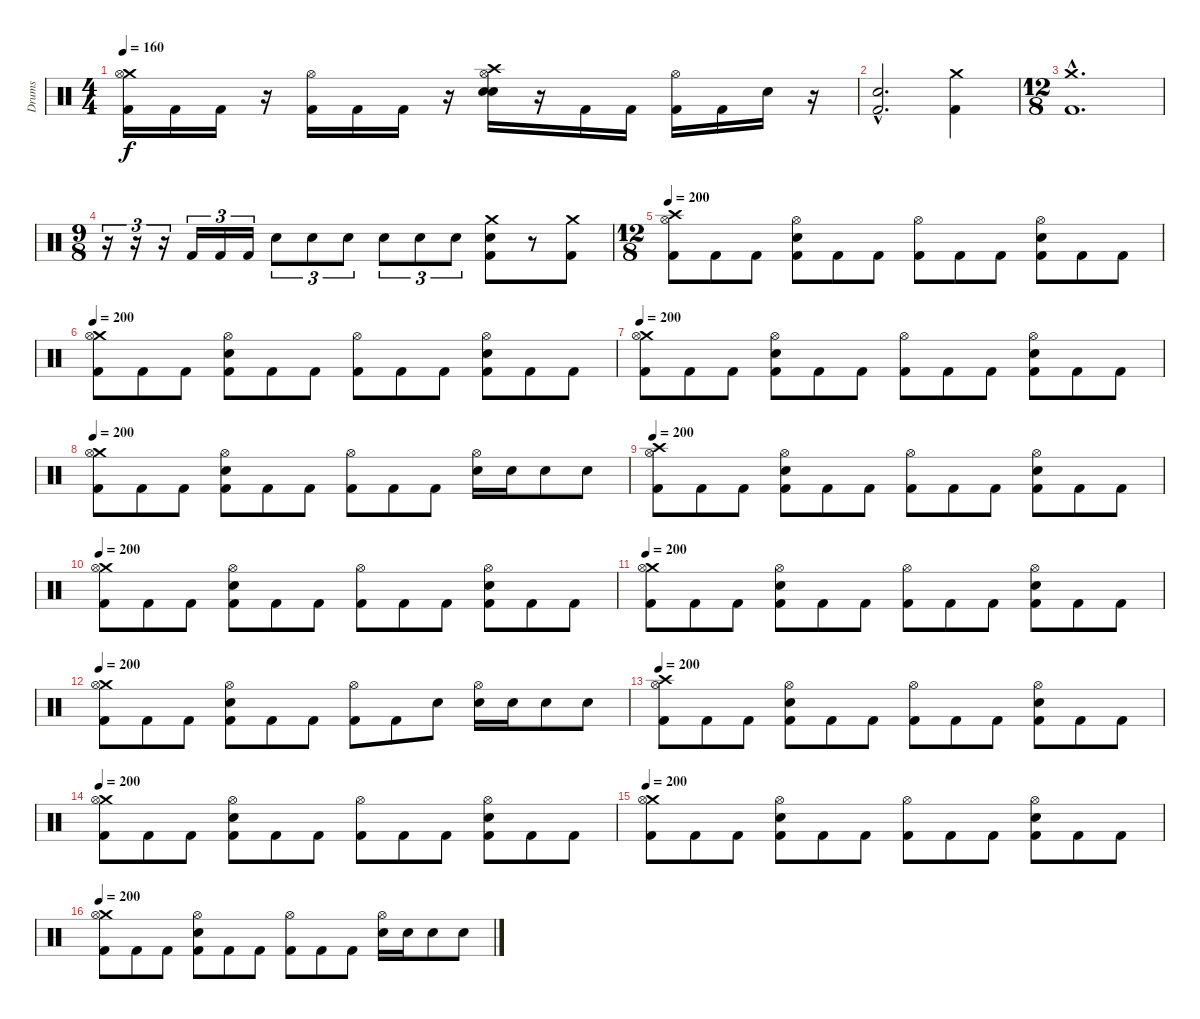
\track ("Drums" "Drums") {instrument percussion}
\staff {score}
\articulation defaults
\ts (4 4)
\tempo 160
\clef neutral
\ks c
("Crash medium (hit)" "Hi-Hat (open)" "Kick (hit) 2").16{dy f} "Kick (hit) 2".16 "Kick (hit) 2".16 r.16 ("Hi-Hat (open)" "Kick (hit) 2").16 "Kick (hit) 2".16 "Kick (hit) 2".16 r.16 ("Crash high (hit)" "Hi-Hat (open)" "Snare (hit) 2" "Electric Snare (hit)").16 r.16 "Kick (hit) 2".16 "Kick (hit) 2".16 ("Hi-Hat (open)" "Kick (hit) 2").16 "Kick (hit) 2".16 "Electric Snare (hit)".16 r.16 |
("Electric Snare (hit)"{hac} "Kick (hit) 2"{hac}).2{d} ("Crash medium (hit)" "Kick (hit) 2").4 |
\ts (12 8)
("Crash medium (hit)"{hac} "Kick (hit) 2"{hac}).1{d} |
\ts (9 8)
r.16{tu (3 2)} r.16{tu (3 2)} r.16{tu (3 2)} "Kick (hit) 2".16{tu (3 2)} "Kick (hit) 2".16{tu (3 2)} "Kick (hit) 2".16{tu (3 2)} "Electric Snare (hit)".8{tu (3 2)} "Electric Snare (hit)".8{tu (3 2)} "Electric Snare (hit)".8{tu (3 2)} "Electric Snare (hit)".8{tu (3 2)} "Electric Snare (hit)".8{tu (3 2)} "Electric Snare (hit)".8{tu (3 2)} ("Crash medium (hit)" "Electric Snare (hit)" "Kick (hit) 2").8 r.8 ("Crash medium (hit)" "Kick (hit) 2").8 |
\ts (12 8)
\tempo 200
("Crash high (hit)" "Hi-Hat (open)" "Kick (hit) 2").8 "Kick (hit) 2".8 "Kick (hit) 2".8 ("Hi-Hat (open)" "Electric Snare (hit)" "Kick (hit) 2").8 "Kick (hit) 2".8 "Kick (hit) 2".8 ("Hi-Hat (open)" "Kick (hit) 2").8 "Kick (hit) 2".8 "Kick (hit) 2".8 ("Hi-Hat (open)" "Electric Snare (hit)" "Kick (hit) 2").8 "Kick (hit) 2".8 "Kick (hit) 2".8 |
\tempo 200
("Crash medium (hit)" "Hi-Hat (open)" "Kick (hit) 2").8 "Kick (hit) 2".8 "Kick (hit) 2".8 ("Hi-Hat (open)" "Electric Snare (hit)" "Kick (hit) 2").8 "Kick (hit) 2".8 "Kick (hit) 2".8 ("Hi-Hat (open)" "Kick (hit) 2").8 "Kick (hit) 2".8 "Kick (hit) 2".8 ("Hi-Hat (open)" "Electric Snare (hit)" "Kick (hit) 2").8 "Kick (hit) 2".8 "Kick (hit) 2".8 |
\tempo 200
("Crash medium (hit)" "Hi-Hat (open)" "Kick (hit) 2").8 "Kick (hit) 2".8 "Kick (hit) 2".8 ("Hi-Hat (open)" "Electric Snare (hit)" "Kick (hit) 2").8 "Kick (hit) 2".8 "Kick (hit) 2".8 ("Hi-Hat (open)" "Kick (hit) 2").8 "Kick (hit) 2".8 "Kick (hit) 2".8 ("Hi-Hat (open)" "Electric Snare (hit)" "Kick (hit) 2").8 "Kick (hit) 2".8 "Kick (hit) 2".8 |
\tempo 200
("Crash medium (hit)" "Hi-Hat (open)" "Kick (hit) 2").8 "Kick (hit) 2".8 "Kick (hit) 2".8 ("Hi-Hat (open)" "Electric Snare (hit)" "Kick (hit) 2").8 "Kick (hit) 2".8 "Kick (hit) 2".8 ("Hi-Hat (open)" "Kick (hit) 2").8 "Kick (hit) 2".8 "Kick (hit) 2".8 ("Hi-Hat (open)" "Electric Snare (hit)").16 "Electric Snare (hit)".16 "Electric Snare (hit)".8 "Electric Snare (hit)".8 |
\tempo 200
("Crash high (hit)" "Hi-Hat (open)" "Kick (hit) 2").8 "Kick (hit) 2".8 "Kick (hit) 2".8 ("Hi-Hat (open)" "Electric Snare (hit)" "Kick (hit) 2").8 "Kick (hit) 2".8 "Kick (hit) 2".8 ("Hi-Hat (open)" "Kick (hit) 2").8 "Kick (hit) 2".8 "Kick (hit) 2".8 ("Hi-Hat (open)" "Electric Snare (hit)" "Kick (hit) 2").8 "Kick (hit) 2".8 "Kick (hit) 2".8 |
\tempo 200
("Crash medium (hit)" "Hi-Hat (open)" "Kick (hit) 2").8 "Kick (hit) 2".8 "Kick (hit) 2".8 ("Hi-Hat (open)" "Electric Snare (hit)" "Kick (hit) 2").8 "Kick (hit) 2".8 "Kick (hit) 2".8 ("Hi-Hat (open)" "Kick (hit) 2").8 "Kick (hit) 2".8 "Kick (hit) 2".8 ("Hi-Hat (open)" "Electric Snare (hit)" "Kick (hit) 2").8 "Kick (hit) 2".8 "Kick (hit) 2".8 |
\tempo 200
("Crash medium (hit)" "Hi-Hat (open)" "Kick (hit) 2").8 "Kick (hit) 2".8 "Kick (hit) 2".8 ("Hi-Hat (open)" "Electric Snare (hit)" "Kick (hit) 2").8 "Kick (hit) 2".8 "Kick (hit) 2".8 ("Hi-Hat (open)" "Kick (hit) 2").8 "Kick (hit) 2".8 "Kick (hit) 2".8 ("Hi-Hat (open)" "Electric Snare (hit)" "Kick (hit) 2").8 "Kick (hit) 2".8 "Kick (hit) 2".8 |
\tempo 200
("Crash medium (hit)" "Hi-Hat (open)" "Kick (hit) 2").8 "Kick (hit) 2".8 "Kick (hit) 2".8 ("Hi-Hat (open)" "Electric Snare (hit)" "Kick (hit) 2").8 "Kick (hit) 2".8 "Kick (hit) 2".8 ("Hi-Hat (open)" "Kick (hit) 2").8 "Kick (hit) 2".8 "Electric Snare (hit)".8 ("Hi-Hat (open)" "Electric Snare (hit)").16 "Electric Snare (hit)".16 "Electric Snare (hit)".8 "Electric Snare (hit)".8 |
\tempo 200
("Crash high (hit)" "Hi-Hat (open)" "Kick (hit) 2").8 "Kick (hit) 2".8 "Kick (hit) 2".8 ("Hi-Hat (open)" "Electric Snare (hit)" "Kick (hit) 2").8 "Kick (hit) 2".8 "Kick (hit) 2".8 ("Hi-Hat (open)" "Kick (hit) 2").8 "Kick (hit) 2".8 "Kick (hit) 2".8 ("Hi-Hat (open)" "Electric Snare (hit)" "Kick (hit) 2").8 "Kick (hit) 2".8 "Kick (hit) 2".8 |
\tempo 200
("Crash medium (hit)" "Hi-Hat (open)" "Kick (hit) 2").8 "Kick (hit) 2".8 "Kick (hit) 2".8 ("Hi-Hat (open)" "Electric Snare (hit)" "Kick (hit) 2").8 "Kick (hit) 2".8 "Kick (hit) 2".8 ("Hi-Hat (open)" "Kick (hit) 2").8 "Kick (hit) 2".8 "Kick (hit) 2".8 ("Hi-Hat (open)" "Electric Snare (hit)" "Kick (hit) 2").8 "Kick (hit) 2".8 "Kick (hit) 2".8 |
\tempo 200
("Crash medium (hit)" "Hi-Hat (open)" "Kick (hit) 2").8 "Kick (hit) 2".8 "Kick (hit) 2".8 ("Hi-Hat (open)" "Electric Snare (hit)" "Kick (hit) 2").8 "Kick (hit) 2".8 "Kick (hit) 2".8 ("Hi-Hat (open)" "Kick (hit) 2").8 "Kick (hit) 2".8 "Kick (hit) 2".8 ("Hi-Hat (open)" "Electric Snare (hit)" "Kick (hit) 2").8 "Kick (hit) 2".8 "Kick (hit) 2".8 |
\tempo 200
("Crash medium (hit)" "Hi-Hat (open)" "Kick (hit) 2").8 "Kick (hit) 2".8 "Kick (hit) 2".8 ("Hi-Hat (open)" "Electric Snare (hit)" "Kick (hit) 2").8 "Kick (hit) 2".8 "Kick (hit) 2".8 ("Hi-Hat (open)" "Kick (hit) 2").8 "Kick (hit) 2".8 "Kick (hit) 2".8 ("Hi-Hat (open)" "Electric Snare (hit)").16 "Electric Snare (hit)".16 "Electric Snare (hit)".8 "Electric Snare (hit)".8
